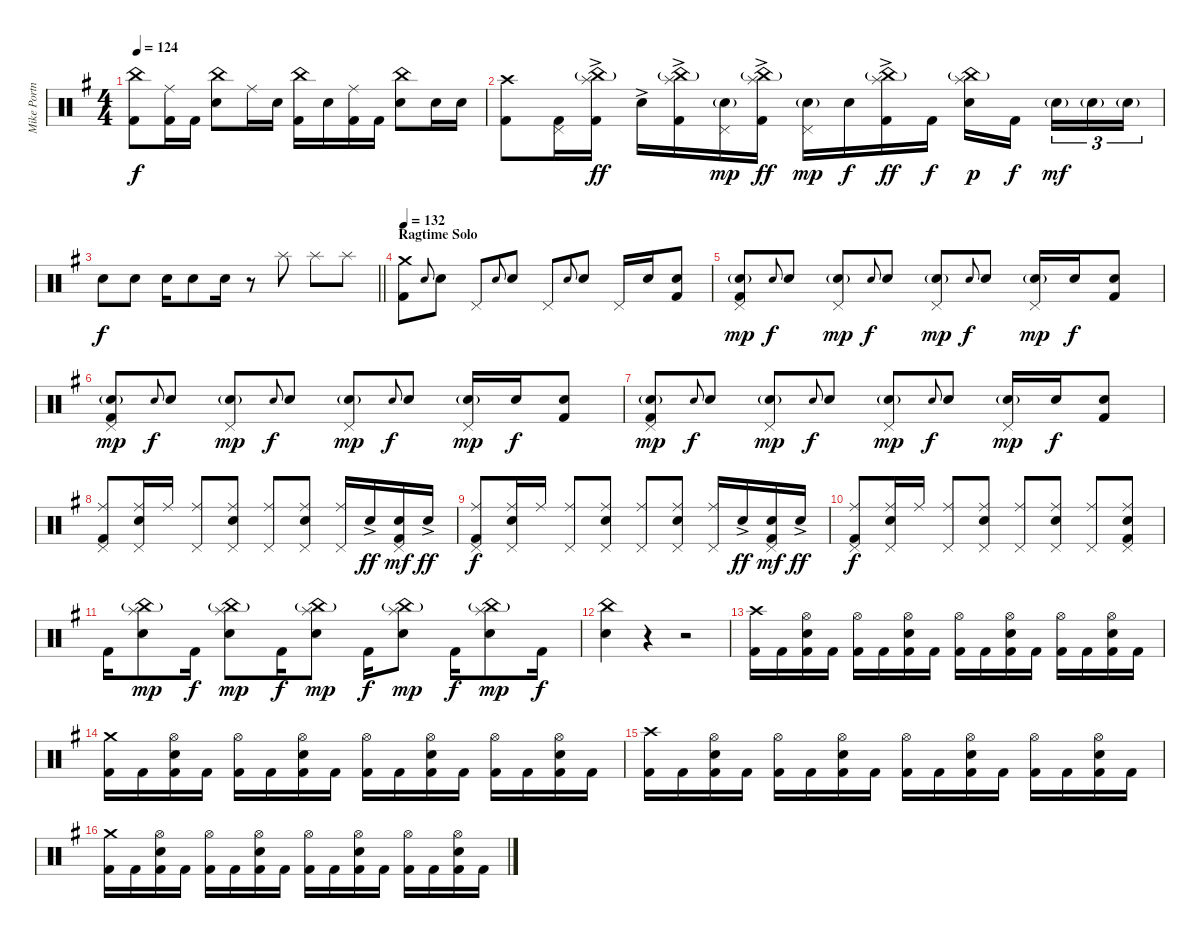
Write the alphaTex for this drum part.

\track ("Mike Portnoy" "Mike Portn") {instrument percussion}
\staff {score}
\articulation defaults
\ts (4 4)
\tempo 124
\clef neutral
\ks g
("China (hit)" "Kick (hit) 2").8{dy f} ("Ride (middle)" "Kick (hit) 2").16 "Kick (hit) 2".16 ("China (hit)" "Electric Snare (hit)").8 "Ride (middle)".16 "Electric Snare (hit)".16 ("China (hit)" "Kick (hit) 2").16 "Electric Snare (hit)".16 ("Ride (middle)" "Kick (hit) 2").16 "Kick (hit) 2".16 ("China (hit)" "Electric Snare (hit)").8 "Electric Snare (hit)".16 "Electric Snare (hit)".16 |
("Crash high (hit)" "Kick (hit) 2").8 ("Pedal Hi-Hat (hit)" "Kick (hit) 2").16 ("China (hit)"{g} "Splash (hit)"{ac} "Kick (hit) 2"{ac}).16{dy ff} "Electric Snare (hit)"{ac}.16 ("China (hit)"{g} "Splash (hit)"{ac} "Kick (hit) 2"{ac}).16 ("Electric Snare (hit)"{g} "Pedal Hi-Hat (hit)").16{dy mp} ("China (hit)"{g} "Splash (hit)"{ac} "Kick (hit) 2"{ac}).16{dy ff} ("Electric Snare (hit)"{g} "Pedal Hi-Hat (hit)").16{dy mp} "Electric Snare (hit)".16{dy f} ("China (hit)"{g} "Splash (hit)"{ac} "Kick (hit) 2"{ac}).16{dy ff} "Kick (hit) 2".16{dy f} ("China (hit)"{g} "Splash (hit)" "Electric Snare (hit)").16{dy p} "Kick (hit) 2".16{dy f beam splitsecondary} "Electric Snare (hit)"{g}.16{tu (3 2) dy mf} "Electric Snare (hit)"{g}.16{tu (3 2)} "Electric Snare (hit)"{g}.16{tu (3 2)} |
\barLineRight lightlight "Electric Snare (hit)".8{dy f} "Electric Snare (hit)".8 "Electric Snare (hit)".16 "Electric Snare (hit)".8 "Electric Snare (hit)".16
r.8 "Splash (hit)".8 "Splash (hit)".8 "Splash (hit)".8 |
\section ("" "Ragtime Solo")
\tempo 132
("Crash medium (hit)" "Kick (hit) 2").8 "Electric Snare (hit)"{h}.8{gr onbeat} "Electric Snare (hit)".8 "Pedal Hi-Hat (hit)".8 "Electric Snare (hit)"{h}.8{gr onbeat} "Electric Snare (hit)".8 "Pedal Hi-Hat (hit)".8 "Electric Snare (hit)"{h}.8{gr onbeat} "Electric Snare (hit)".8 "Pedal Hi-Hat (hit)".16 "Electric Snare (hit)".16 ("Electric Snare (hit)" "Kick (hit) 2").8 |
("Electric Snare (hit)"{g} "Pedal Hi-Hat (hit)" "Kick (hit) 2").8{dy mp} "Electric Snare (hit)"{h}.8{gr onbeat dy f} "Electric Snare (hit)".8 ("Electric Snare (hit)"{g} "Pedal Hi-Hat (hit)").8{dy mp} "Electric Snare (hit)"{h}.8{gr onbeat dy f} "Electric Snare (hit)".8 ("Electric Snare (hit)"{g} "Pedal Hi-Hat (hit)").8{dy mp} "Electric Snare (hit)"{h}.8{gr onbeat dy f} "Electric Snare (hit)".8 ("Electric Snare (hit)"{g} "Pedal Hi-Hat (hit)").16{dy mp} "Electric Snare (hit)".16{dy f} ("Electric Snare (hit)" "Kick (hit) 2").8 |
("Electric Snare (hit)"{g} "Pedal Hi-Hat (hit)" "Kick (hit) 2").8{dy mp} "Electric Snare (hit)"{h}.8{gr onbeat dy f} "Electric Snare (hit)".8 ("Electric Snare (hit)"{g} "Pedal Hi-Hat (hit)").8{dy mp} "Electric Snare (hit)"{h}.8{gr onbeat dy f} "Electric Snare (hit)".8 ("Electric Snare (hit)"{g} "Pedal Hi-Hat (hit)").8{dy mp} "Electric Snare (hit)"{h}.8{gr onbeat dy f} "Electric Snare (hit)".8 ("Electric Snare (hit)"{g} "Pedal Hi-Hat (hit)").16{dy mp} "Electric Snare (hit)".16{dy f} ("Electric Snare (hit)" "Kick (hit) 2").8 |
("Electric Snare (hit)"{g} "Pedal Hi-Hat (hit)" "Kick (hit) 2").8{dy mp} "Electric Snare (hit)"{h}.8{gr onbeat dy f} "Electric Snare (hit)".8 ("Electric Snare (hit)"{g} "Pedal Hi-Hat (hit)").8{dy mp} "Electric Snare (hit)"{h}.8{gr onbeat dy f} "Electric Snare (hit)".8 ("Electric Snare (hit)"{g} "Pedal Hi-Hat (hit)").8{dy mp} "Electric Snare (hit)"{h}.8{gr onbeat dy f} "Electric Snare (hit)".8 ("Electric Snare (hit)"{g} "Pedal Hi-Hat (hit)").16{dy mp} "Electric Snare (hit)".16{dy f} ("Electric Snare (hit)" "Kick (hit) 2").8 |
("Ride (middle)" "Pedal Hi-Hat (hit)" "Kick (hit) 2").8 ("Ride (middle)" "Electric Snare (hit)" "Pedal Hi-Hat (hit)").16 "Ride (middle)".16 ("Ride (middle)" "Pedal Hi-Hat (hit)").8 ("Ride (middle)" "Electric Snare (hit)" "Pedal Hi-Hat (hit)").8 ("Ride (middle)" "Pedal Hi-Hat (hit)").8 ("Ride (middle)" "Electric Snare (hit)" "Pedal Hi-Hat (hit)").8 ("Ride (middle)" "Pedal Hi-Hat (hit)").16 "Electric Snare (hit)"{ac}.16{dy ff} ("Electric Snare (hit)" "Pedal Hi-Hat (hit)" "Kick (hit) 2").16{dy mf} "Electric Snare (hit)"{ac}.16{dy ff} |
("Ride (middle)" "Pedal Hi-Hat (hit)" "Kick (hit) 2").8{dy f} ("Ride (middle)" "Electric Snare (hit)" "Pedal Hi-Hat (hit)").16 "Ride (middle)".16 ("Ride (middle)" "Pedal Hi-Hat (hit)").8 ("Ride (middle)" "Electric Snare (hit)" "Pedal Hi-Hat (hit)").8 ("Ride (middle)" "Pedal Hi-Hat (hit)").8 ("Ride (middle)" "Electric Snare (hit)" "Pedal Hi-Hat (hit)").8 ("Ride (middle)" "Pedal Hi-Hat (hit)").16 "Electric Snare (hit)"{ac}.16{dy ff} ("Electric Snare (hit)" "Pedal Hi-Hat (hit)" "Kick (hit) 2").16{dy mf} "Electric Snare (hit)"{ac}.16{dy ff} |
("Ride (middle)" "Pedal Hi-Hat (hit)" "Kick (hit) 2").8{dy f} ("Ride (middle)" "Electric Snare (hit)" "Pedal Hi-Hat (hit)").16 "Ride (middle)".16 ("Ride (middle)" "Pedal Hi-Hat (hit)").8 ("Ride (middle)" "Electric Snare (hit)" "Pedal Hi-Hat (hit)").8 ("Ride (middle)" "Pedal Hi-Hat (hit)").8 ("Ride (middle)" "Electric Snare (hit)" "Pedal Hi-Hat (hit)").8 ("Ride (middle)" "Pedal Hi-Hat (hit)").8 ("Ride (middle)" "Electric Snare (hit)" "Pedal Hi-Hat (hit)" "Kick (hit) 2").8 |
"Kick (hit) 2".16 ("China (hit)"{g} "Splash (hit)" "Electric Snare (hit)").8{dy mp} "Kick (hit) 2".16{dy f} ("China (hit)"{g} "Splash (hit)" "Electric Snare (hit)").8{dy mp} "Kick (hit) 2".16{dy f} ("China (hit)"{g} "Splash (hit)" "Electric Snare (hit)").8{dy mp} "Kick (hit) 2".16{dy f} ("China (hit)"{g} "Splash (hit)" "Electric Snare (hit)").8{dy mp} "Kick (hit) 2".16{dy f} ("China (hit)"{g} "Splash (hit)" "Electric Snare (hit)").8{dy mp} "Kick (hit) 2".16{dy f} |
("China (hit)" "Electric Snare (hit)").4 r.4 r.2 |
("Crash high (hit)" "Kick (hit) 2").16 "Kick (hit) 2".16 ("Hi-Hat (open)" "Electric Snare (hit)" "Kick (hit) 2").16 "Kick (hit) 2".16 ("Hi-Hat (open)" "Kick (hit) 2").16 "Kick (hit) 2".16 ("Hi-Hat (open)" "Electric Snare (hit)" "Kick (hit) 2").16 "Kick (hit) 2".16 ("Hi-Hat (open)" "Kick (hit) 2").16 "Kick (hit) 2".16 ("Hi-Hat (open)" "Electric Snare (hit)" "Kick (hit) 2").16 "Kick (hit) 2".16 ("Hi-Hat (open)" "Kick (hit) 2").16 "Kick (hit) 2".16 ("Hi-Hat (open)" "Electric Snare (hit)" "Kick (hit) 2").16 "Kick (hit) 2".16 |
("Crash medium (hit)" "Kick (hit) 2").16 "Kick (hit) 2".16 ("Hi-Hat (open)" "Electric Snare (hit)" "Kick (hit) 2").16 "Kick (hit) 2".16 ("Hi-Hat (open)" "Kick (hit) 2").16 "Kick (hit) 2".16 ("Hi-Hat (open)" "Electric Snare (hit)" "Kick (hit) 2").16 "Kick (hit) 2".16 ("Hi-Hat (open)" "Kick (hit) 2").16 "Kick (hit) 2".16 ("Hi-Hat (open)" "Electric Snare (hit)" "Kick (hit) 2").16 "Kick (hit) 2".16 ("Hi-Hat (open)" "Kick (hit) 2").16 "Kick (hit) 2".16 ("Hi-Hat (open)" "Electric Snare (hit)" "Kick (hit) 2").16 "Kick (hit) 2".16 |
("Crash high (hit)" "Kick (hit) 2").16 "Kick (hit) 2".16 ("Hi-Hat (open)" "Electric Snare (hit)" "Kick (hit) 2").16 "Kick (hit) 2".16 ("Hi-Hat (open)" "Kick (hit) 2").16 "Kick (hit) 2".16 ("Hi-Hat (open)" "Electric Snare (hit)" "Kick (hit) 2").16 "Kick (hit) 2".16 ("Hi-Hat (open)" "Kick (hit) 2").16 "Kick (hit) 2".16 ("Hi-Hat (open)" "Electric Snare (hit)" "Kick (hit) 2").16 "Kick (hit) 2".16 ("Hi-Hat (open)" "Kick (hit) 2").16 "Kick (hit) 2".16 ("Hi-Hat (open)" "Electric Snare (hit)" "Kick (hit) 2").16 "Kick (hit) 2".16 |
("Crash medium (hit)" "Kick (hit) 2").16 "Kick (hit) 2".16 ("Hi-Hat (open)" "Electric Snare (hit)" "Kick (hit) 2").16 "Kick (hit) 2".16 ("Hi-Hat (open)" "Kick (hit) 2").16 "Kick (hit) 2".16 ("Hi-Hat (open)" "Electric Snare (hit)" "Kick (hit) 2").16 "Kick (hit) 2".16 ("Hi-Hat (open)" "Kick (hit) 2").16 "Kick (hit) 2".16 ("Hi-Hat (open)" "Electric Snare (hit)" "Kick (hit) 2").16 "Kick (hit) 2".16 ("Hi-Hat (open)" "Kick (hit) 2").16 "Kick (hit) 2".16 ("Hi-Hat (open)" "Electric Snare (hit)" "Kick (hit) 2").16 "Kick (hit) 2".16
